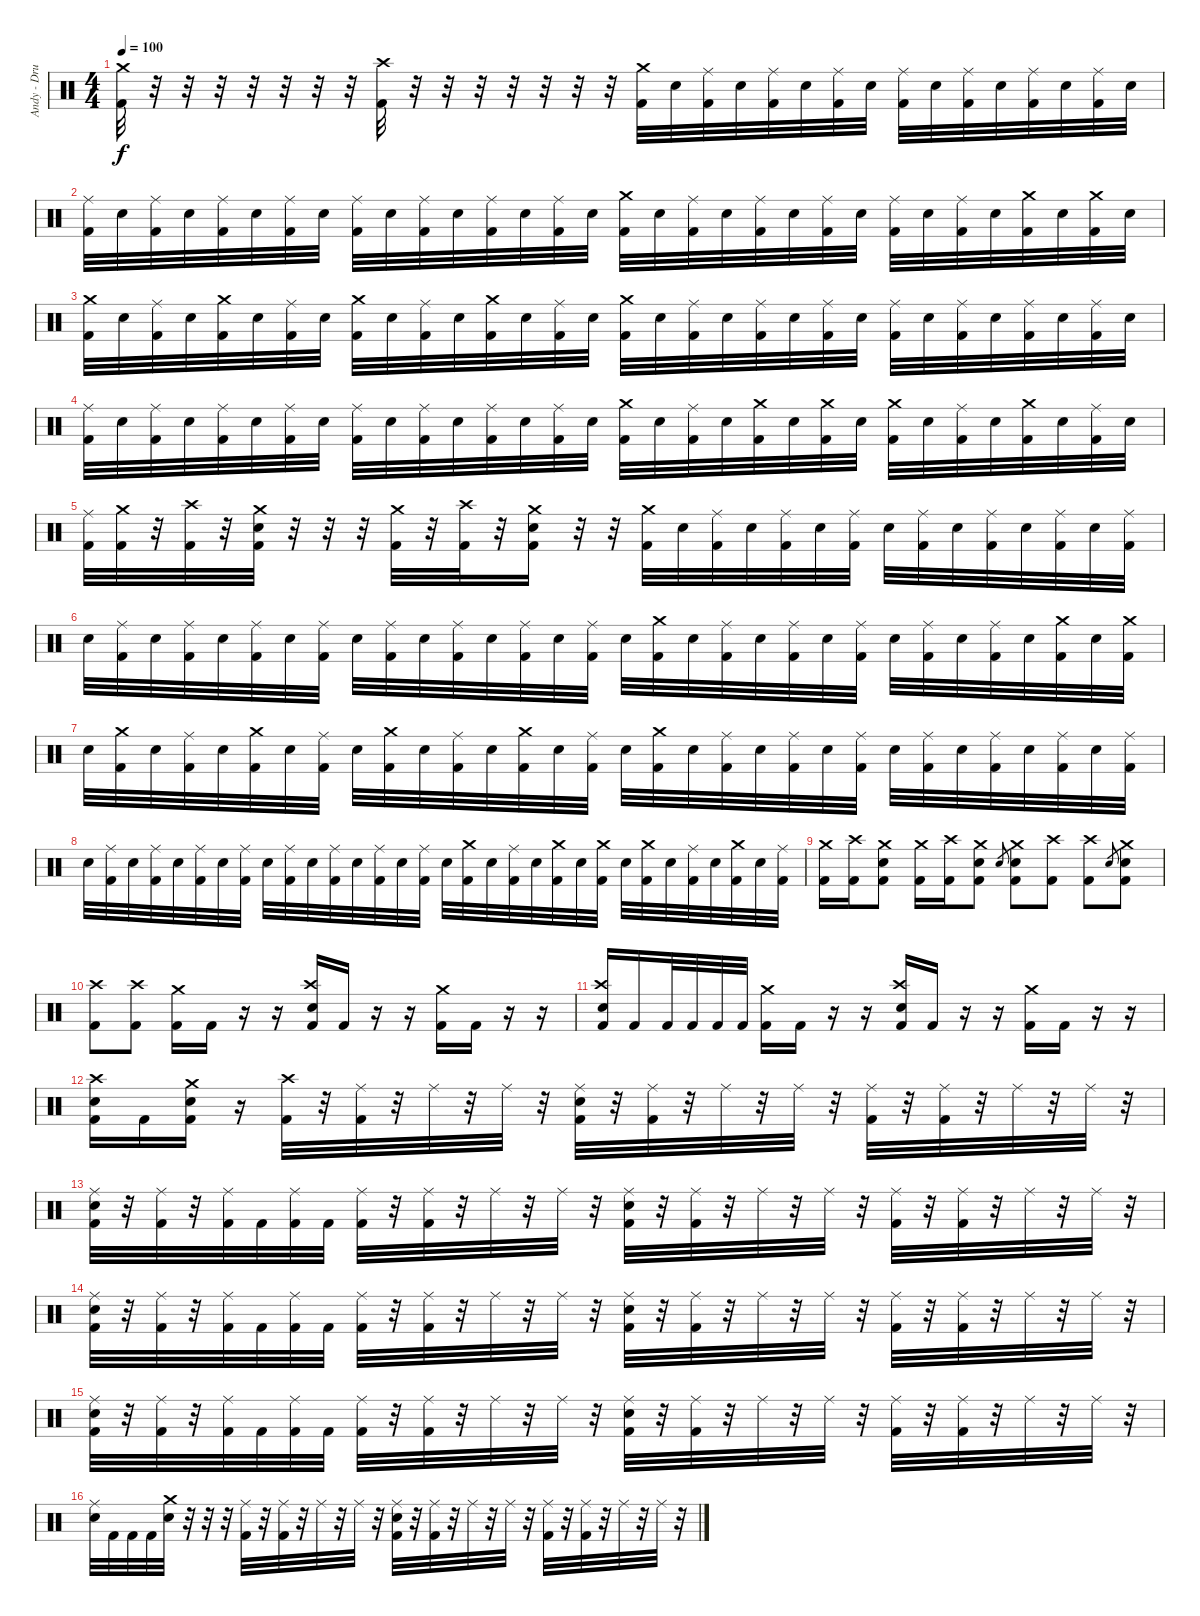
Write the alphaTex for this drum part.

\track ("Andy - Drums" "Andy - Dru") {instrument percussion}
\staff {score}
\articulation defaults
\ts (4 4)
\tempo 100
\clef neutral
\ks c
("Crash medium (hit)" "Kick (hit) 2").32{dy f} r.32 r.32 r.32 r.32 r.32 r.32 r.32 ("Crash high (hit)" "Kick (hit) 2").32 r.32 r.32 r.32 r.32 r.32 r.32 r.32 ("Crash medium (hit)" "Kick (hit) 2").32 "Electric Snare (hit)".32 ("Ride (middle)" "Kick (hit) 2").32 "Electric Snare (hit)".32 ("Ride (middle)" "Kick (hit) 2").32 "Electric Snare (hit)".32 ("Ride (middle)" "Kick (hit) 2").32 "Electric Snare (hit)".32 ("Ride (middle)" "Kick (hit) 2").32 "Electric Snare (hit)".32 ("Ride (middle)" "Kick (hit) 2").32 "Electric Snare (hit)".32 ("Ride (middle)" "Kick (hit) 2").32 "Electric Snare (hit)".32 ("Ride (middle)" "Kick (hit) 2").32 "Electric Snare (hit)".32 |
("Ride (middle)" "Kick (hit) 2").32 "Electric Snare (hit)".32 ("Ride (middle)" "Kick (hit) 2").32 "Electric Snare (hit)".32 ("Ride (middle)" "Kick (hit) 2").32 "Electric Snare (hit)".32 ("Ride (middle)" "Kick (hit) 2").32 "Electric Snare (hit)".32 ("Ride (middle)" "Kick (hit) 2").32 "Electric Snare (hit)".32 ("Ride (middle)" "Kick (hit) 2").32 "Electric Snare (hit)".32 ("Ride (middle)" "Kick (hit) 2").32 "Electric Snare (hit)".32 ("Ride (middle)" "Kick (hit) 2").32 "Electric Snare (hit)".32 ("Crash medium (hit)" "Kick (hit) 2").32 "Electric Snare (hit)".32 ("Ride (middle)" "Kick (hit) 2").32 "Electric Snare (hit)".32 ("Ride (middle)" "Kick (hit) 2").32 "Electric Snare (hit)".32 ("Ride (middle)" "Kick (hit) 2").32 "Electric Snare (hit)".32 ("Ride (middle)" "Kick (hit) 2").32 "Electric Snare (hit)".32 ("Ride (middle)" "Kick (hit) 2").32 "Electric Snare (hit)".32 ("Crash medium (hit)" "Kick (hit) 2").32 "Electric Snare (hit)".32 ("Crash medium (hit)" "Kick (hit) 2").32 "Electric Snare (hit)".32 |
("Crash medium (hit)" "Kick (hit) 2").32 "Electric Snare (hit)".32 ("Ride (middle)" "Kick (hit) 2").32 "Electric Snare (hit)".32 ("Crash medium (hit)" "Kick (hit) 2").32 "Electric Snare (hit)".32 ("Ride (middle)" "Kick (hit) 2").32 "Electric Snare (hit)".32 ("Crash medium (hit)" "Kick (hit) 2").32 "Electric Snare (hit)".32 ("Ride (middle)" "Kick (hit) 2").32 "Electric Snare (hit)".32 ("Crash medium (hit)" "Kick (hit) 2").32 "Electric Snare (hit)".32 ("Ride (middle)" "Kick (hit) 2").32 "Electric Snare (hit)".32 ("Crash medium (hit)" "Kick (hit) 2").32 "Electric Snare (hit)".32 ("Ride (middle)" "Kick (hit) 2").32 "Electric Snare (hit)".32 ("Ride (middle)" "Kick (hit) 2").32 "Electric Snare (hit)".32 ("Ride (middle)" "Kick (hit) 2").32 "Electric Snare (hit)".32 ("Ride (middle)" "Kick (hit) 2").32 "Electric Snare (hit)".32 ("Ride (middle)" "Kick (hit) 2").32 "Electric Snare (hit)".32 ("Ride (middle)" "Kick (hit) 2").32 "Electric Snare (hit)".32 ("Ride (middle)" "Kick (hit) 2").32 "Electric Snare (hit)".32 |
("Ride (middle)" "Kick (hit) 2").32 "Electric Snare (hit)".32 ("Ride (middle)" "Kick (hit) 2").32 "Electric Snare (hit)".32 ("Ride (middle)" "Kick (hit) 2").32 "Electric Snare (hit)".32 ("Ride (middle)" "Kick (hit) 2").32 "Electric Snare (hit)".32 ("Ride (middle)" "Kick (hit) 2").32 "Electric Snare (hit)".32 ("Ride (middle)" "Kick (hit) 2").32 "Electric Snare (hit)".32 ("Ride (middle)" "Kick (hit) 2").32 "Electric Snare (hit)".32 ("Ride (middle)" "Kick (hit) 2").32 "Electric Snare (hit)".32 ("Crash medium (hit)" "Kick (hit) 2").32 "Electric Snare (hit)".32 ("Ride (middle)" "Kick (hit) 2").32 "Electric Snare (hit)".32 ("Crash medium (hit)" "Kick (hit) 2").32 "Electric Snare (hit)".32 ("Crash medium (hit)" "Kick (hit) 2").32 "Electric Snare (hit)".32 ("Crash medium (hit)" "Kick (hit) 2").32 "Electric Snare (hit)".32 ("Ride (middle)" "Kick (hit) 2").32 "Electric Snare (hit)".32 ("Crash medium (hit)" "Kick (hit) 2").32 "Electric Snare (hit)".32 ("Ride (middle)" "Kick (hit) 2").32 "Electric Snare (hit)".32 |
("Ride (middle)" "Kick (hit) 2").32 ("Crash medium (hit)" "Kick (hit) 2").32 r.32 ("Crash high (hit)" "Kick (hit) 2").32 r.32 ("Crash medium (hit)" "Electric Snare (hit)" "Kick (hit) 2").32 r.32 r.32 r.32 ("Crash medium (hit)" "Kick (hit) 2").32 r.32 ("Crash high (hit)" "Kick (hit) 2").32 r.32 ("Crash medium (hit)" "Electric Snare (hit)" "Kick (hit) 2").16 r.32 r.32 ("Crash medium (hit)" "Kick (hit) 2").32 "Electric Snare (hit)".32 ("Ride (middle)" "Kick (hit) 2").32 "Electric Snare (hit)".32 ("Ride (middle)" "Kick (hit) 2").32 "Electric Snare (hit)".32 ("Ride (middle)" "Kick (hit) 2").32 "Electric Snare (hit)".32 ("Ride (middle)" "Kick (hit) 2").32 "Electric Snare (hit)".32 ("Ride (middle)" "Kick (hit) 2").32 "Electric Snare (hit)".32 ("Ride (middle)" "Kick (hit) 2").32 "Electric Snare (hit)".32 ("Ride (middle)" "Kick (hit) 2").32 |
"Electric Snare (hit)".32 ("Ride (middle)" "Kick (hit) 2").32 "Electric Snare (hit)".32 ("Ride (middle)" "Kick (hit) 2").32 "Electric Snare (hit)".32 ("Ride (middle)" "Kick (hit) 2").32 "Electric Snare (hit)".32 ("Ride (middle)" "Kick (hit) 2").32 "Electric Snare (hit)".32 ("Ride (middle)" "Kick (hit) 2").32 "Electric Snare (hit)".32 ("Ride (middle)" "Kick (hit) 2").32 "Electric Snare (hit)".32 ("Ride (middle)" "Kick (hit) 2").32 "Electric Snare (hit)".32 ("Ride (middle)" "Kick (hit) 2").32 "Electric Snare (hit)".32 ("Crash medium (hit)" "Kick (hit) 2").32 "Electric Snare (hit)".32 ("Ride (middle)" "Kick (hit) 2").32 "Electric Snare (hit)".32 ("Ride (middle)" "Kick (hit) 2").32 "Electric Snare (hit)".32 ("Ride (middle)" "Kick (hit) 2").32 "Electric Snare (hit)".32 ("Ride (middle)" "Kick (hit) 2").32 "Electric Snare (hit)".32 ("Ride (middle)" "Kick (hit) 2").32 "Electric Snare (hit)".32 ("Crash medium (hit)" "Kick (hit) 2").32 "Electric Snare (hit)".32 ("Crash medium (hit)" "Kick (hit) 2").32 |
"Electric Snare (hit)".32 ("Crash medium (hit)" "Kick (hit) 2").32 "Electric Snare (hit)".32 ("Ride (middle)" "Kick (hit) 2").32 "Electric Snare (hit)".32 ("Crash medium (hit)" "Kick (hit) 2").32 "Electric Snare (hit)".32 ("Ride (middle)" "Kick (hit) 2").32 "Electric Snare (hit)".32 ("Crash medium (hit)" "Kick (hit) 2").32 "Electric Snare (hit)".32 ("Ride (middle)" "Kick (hit) 2").32 "Electric Snare (hit)".32 ("Crash medium (hit)" "Kick (hit) 2").32 "Electric Snare (hit)".32 ("Ride (middle)" "Kick (hit) 2").32 "Electric Snare (hit)".32 ("Crash medium (hit)" "Kick (hit) 2").32 "Electric Snare (hit)".32 ("Ride (middle)" "Kick (hit) 2").32 "Electric Snare (hit)".32 ("Ride (middle)" "Kick (hit) 2").32 "Electric Snare (hit)".32 ("Ride (middle)" "Kick (hit) 2").32 "Electric Snare (hit)".32 ("Ride (middle)" "Kick (hit) 2").32 "Electric Snare (hit)".32 ("Ride (middle)" "Kick (hit) 2").32 "Electric Snare (hit)".32 ("Ride (middle)" "Kick (hit) 2").32 "Electric Snare (hit)".32 ("Ride (middle)" "Kick (hit) 2").32 |
"Electric Snare (hit)".32 ("Ride (middle)" "Kick (hit) 2").32 "Electric Snare (hit)".32 ("Ride (middle)" "Kick (hit) 2").32 "Electric Snare (hit)".32 ("Ride (middle)" "Kick (hit) 2").32 "Electric Snare (hit)".32 ("Ride (middle)" "Kick (hit) 2").32 "Electric Snare (hit)".32 ("Ride (middle)" "Kick (hit) 2").32 "Electric Snare (hit)".32 ("Ride (middle)" "Kick (hit) 2").32 "Electric Snare (hit)".32 ("Ride (middle)" "Kick (hit) 2").32 "Electric Snare (hit)".32 ("Ride (middle)" "Kick (hit) 2").32 "Electric Snare (hit)".32 ("Crash medium (hit)" "Kick (hit) 2").32 "Electric Snare (hit)".32 ("Ride (middle)" "Kick (hit) 2").32 "Electric Snare (hit)".32 ("Crash medium (hit)" "Kick (hit) 2").32 "Electric Snare (hit)".32 ("Crash medium (hit)" "Kick (hit) 2").32 "Electric Snare (hit)".32 ("Crash medium (hit)" "Kick (hit) 2").32 "Electric Snare (hit)".32 ("Ride (middle)" "Kick (hit) 2").32 "Electric Snare (hit)".32 ("Crash medium (hit)" "Kick (hit) 2").32 "Electric Snare (hit)".32 ("Ride (middle)" "Kick (hit) 2").32 |
("Crash medium (hit)" "Kick (hit) 2").16 ("Crash high (hit)" "Kick (hit) 2").16 ("Crash medium (hit)" "Electric Snare (hit)" "Kick (hit) 2").8 ("Crash medium (hit)" "Kick (hit) 2").16 ("Crash high (hit)" "Kick (hit) 2").16 ("Crash medium (hit)" "Electric Snare (hit)" "Kick (hit) 2").8 "Electric Snare (hit)".8{gr} ("Crash medium (hit)" "Electric Snare (hit)" "Kick (hit) 2").8 ("Crash high (hit)" "Kick (hit) 2").8 ("Crash high (hit)" "Kick (hit) 2").8 "Electric Snare (hit)".8{gr} ("Crash medium (hit)" "Electric Snare (hit)" "Kick (hit) 2").8 |
("Crash high (hit)" "Kick (hit) 2").8 ("Crash high (hit)" "Kick (hit) 2").8 ("Crash medium (hit)" "Kick (hit) 2").16 "Kick (hit) 2".16 r.16 r.16 ("Crash high (hit)" "Electric Snare (hit)" "Kick (hit) 2").16 "Kick (hit) 2".16 r.16 r.16 ("Crash medium (hit)" "Kick (hit) 2").16 "Kick (hit) 2".16 r.16 r.16 |
("Crash high (hit)" "Electric Snare (hit)" "Kick (hit) 2").16 "Kick (hit) 2".16 "Kick (hit) 2".32 "Kick (hit) 2".32 "Kick (hit) 2".32 "Kick (hit) 2".32 ("Crash medium (hit)" "Kick (hit) 2").16 "Kick (hit) 2".16 r.16 r.16 ("Crash high (hit)" "Electric Snare (hit)" "Kick (hit) 2").16 "Kick (hit) 2".16 r.16 r.16 ("Crash medium (hit)" "Kick (hit) 2").16 "Kick (hit) 2".16 r.16 r.16 |
("Crash high (hit)" "Electric Snare (hit)" "Kick (hit) 2").16 "Kick (hit) 2".16 ("Crash medium (hit)" "Electric Snare (hit)" "Kick (hit) 2").16 r.16 ("Crash high (hit)" "Kick (hit) 2").32 r.32 ("Ride (middle)" "Kick (hit) 2").32 r.32 "Ride (middle)".32 r.32 "Ride (middle)".32 r.32 ("Ride (middle)" "Electric Snare (hit)" "Kick (hit) 2").32 r.32 ("Ride (middle)" "Kick (hit) 2").32 r.32 "Ride (middle)".32 r.32 "Ride (middle)".32 r.32 ("Ride (middle)" "Kick (hit) 2").32 r.32 ("Ride (middle)" "Kick (hit) 2").32 r.32 "Ride (middle)".32 r.32 "Ride (middle)".32 r.32 |
("Ride (middle)" "Electric Snare (hit)" "Kick (hit) 2").32 r.32 ("Ride (middle)" "Kick (hit) 2").32 r.32 ("Ride (middle)" "Kick (hit) 2").32 "Kick (hit) 2".32 ("Ride (middle)" "Kick (hit) 2").32 "Kick (hit) 2".32 ("Ride (middle)" "Kick (hit) 2").32 r.32 ("Ride (middle)" "Kick (hit) 2").32 r.32 "Ride (middle)".32 r.32 "Ride (middle)".32 r.32 ("Ride (middle)" "Electric Snare (hit)" "Kick (hit) 2").32 r.32 ("Ride (middle)" "Kick (hit) 2").32 r.32 "Ride (middle)".32 r.32 "Ride (middle)".32 r.32 ("Ride (middle)" "Kick (hit) 2").32 r.32 ("Ride (middle)" "Kick (hit) 2").32 r.32 "Ride (middle)".32 r.32 "Ride (middle)".32 r.32 |
("Ride (middle)" "Electric Snare (hit)" "Kick (hit) 2").32 r.32 ("Ride (middle)" "Kick (hit) 2").32 r.32 ("Ride (middle)" "Kick (hit) 2").32 "Kick (hit) 2".32 ("Ride (middle)" "Kick (hit) 2").32 "Kick (hit) 2".32 ("Ride (middle)" "Kick (hit) 2").32 r.32 ("Ride (middle)" "Kick (hit) 2").32 r.32 "Ride (middle)".32 r.32 "Ride (middle)".32 r.32 ("Ride (middle)" "Electric Snare (hit)" "Kick (hit) 2").32 r.32 ("Ride (middle)" "Kick (hit) 2").32 r.32 "Ride (middle)".32 r.32 "Ride (middle)".32 r.32 ("Ride (middle)" "Kick (hit) 2").32 r.32 ("Ride (middle)" "Kick (hit) 2").32 r.32 "Ride (middle)".32 r.32 "Ride (middle)".32 r.32 |
("Ride (middle)" "Electric Snare (hit)" "Kick (hit) 2").32 r.32 ("Ride (middle)" "Kick (hit) 2").32 r.32 ("Ride (middle)" "Kick (hit) 2").32 "Kick (hit) 2".32 ("Ride (middle)" "Kick (hit) 2").32 "Kick (hit) 2".32 ("Ride (middle)" "Kick (hit) 2").32 r.32 ("Ride (middle)" "Kick (hit) 2").32 r.32 "Ride (middle)".32 r.32 "Ride (middle)".32 r.32 ("Ride (middle)" "Electric Snare (hit)" "Kick (hit) 2").32 r.32 ("Ride (middle)" "Kick (hit) 2").32 r.32 "Ride (middle)".32 r.32 "Ride (middle)".32 r.32 ("Ride (middle)" "Kick (hit) 2").32 r.32 ("Ride (middle)" "Kick (hit) 2").32 r.32 "Ride (middle)".32 r.32 "Ride (middle)".32 r.32 |
("Ride (middle)" "Electric Snare (hit)").32 "Kick (hit) 2".32 "Kick (hit) 2".32 "Kick (hit) 2".32 ("Crash medium (hit)" "Electric Snare (hit)").32 r.32 r.32 r.32 ("Ride (middle)" "Kick (hit) 2").32 r.32 ("Ride (middle)" "Kick (hit) 2").32 r.32 "Ride (middle)".32 r.32 "Ride (middle)".32 r.32 ("Ride (middle)" "Electric Snare (hit)" "Kick (hit) 2").32 r.32 ("Ride (middle)" "Kick (hit) 2").32 r.32 "Ride (middle)".32 r.32 "Ride (middle)".32 r.32 ("Ride (middle)" "Kick (hit) 2").32 r.32 ("Ride (middle)" "Kick (hit) 2").32 r.32 "Ride (middle)".32 r.32 "Ride (middle)".32 r.32
